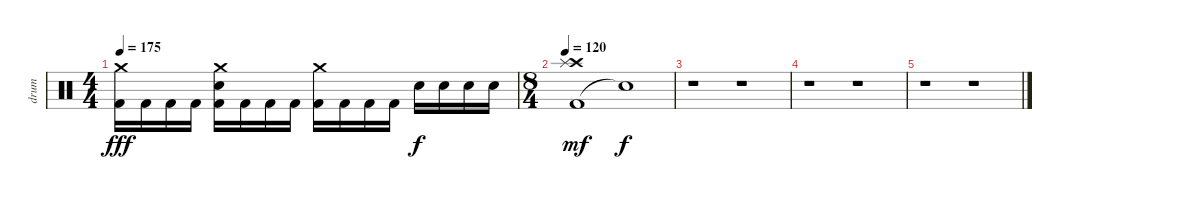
\track ("drum" "drum") {instrument percussion}
\staff {score}
\articulation defaults
\ts (4 4)
\tempo 175
\clef neutral
\ks c
("Crash medium (hit)" "Kick (hit) 2").16{dy fff} "Kick (hit) 2".16 "Kick (hit) 2".16 "Kick (hit) 2".16 ("Crash medium (hit)" "Electric Snare (hit)" "Kick (hit) 2").16 "Kick (hit) 2".16 "Kick (hit) 2".16 "Kick (hit) 2".16 ("Crash medium (hit)" "Kick (hit) 2").16 "Kick (hit) 2".16 "Kick (hit) 2".16 "Kick (hit) 2".16 "Electric Snare (hit)".16{dy f} "Electric Snare (hit)".16 "Electric Snare (hit)".16 "Electric Snare (hit)".16 |
\ts (8 4)
\tempo 120
("Kick (hit) 2" "Crash high (hit)" "Splash (hit)").1{dy mf} "Snare (hit)"{t}.1{dy f} |
r.1 r.1 |
r.1 r.1 |
r.1 r.1
